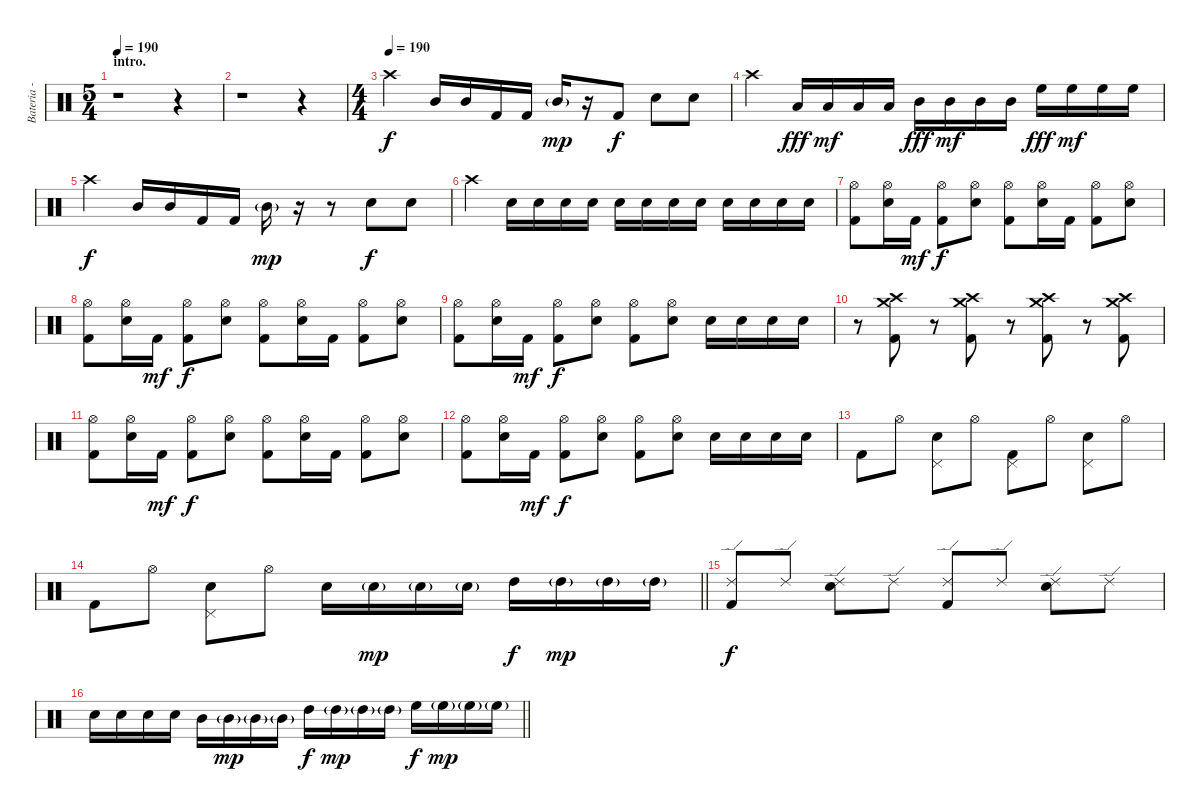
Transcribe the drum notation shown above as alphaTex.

\track ("Bateria - Larzon" "Bateria - ") {instrument percussion}
\staff {score}
\articulation defaults
\ts (5 4)
\section ("" "intro.")
\tempo 190
\tempo 99
\tempo 190
\clef neutral
\ks c
r.1{dy f} r.4 |
r.1 r.4 |
\ts (4 4)
\tempo (190)
"Crash high (hit)".4 "Mid Tom (hit)".16 "Mid Tom (hit)".16 "Kick (hit) 2".16 "Kick (hit) 2".16 "Mid Tom (hit)"{g}.16{dy mp} r.16 "Kick (hit) 2".8{dy f} "Electric Snare (hit)".8 "Electric Snare (hit)".8 |
"Crash high (hit)".4 "Low Tom (hit)".16{dy fff} "Low Tom (hit)".16{dy mf} "Low Tom (hit)".16 "Low Tom (hit)".16 "Mid Tom (hit)".16{dy fff} "Mid Tom (hit)".16{dy mf} "Mid Tom (hit)".16 "Mid Tom (hit)".16 "High Floor Tom (hit)".16{dy fff} "High Floor Tom (hit)".16{dy mf} "High Floor Tom (hit)".16 "High Floor Tom (hit)".16 |
"Crash high (hit)".4{dy f} "Mid Tom (hit)".16 "Mid Tom (hit)".16 "Kick (hit) 2".16 "Kick (hit) 2".16 "Mid Tom (hit)"{g}.16{dy mp} r.16 r.8 "Electric Snare (hit)".8{dy f} "Electric Snare (hit)".8 |
"Crash high (hit)".4 "Electric Snare (hit)".16 "Electric Snare (hit)".16 "Electric Snare (hit)".16 "Electric Snare (hit)".16 "Electric Snare (hit)".16 "Electric Snare (hit)".16 "Electric Snare (hit)".16 "Electric Snare (hit)".16 "Electric Snare (hit)".16 "Electric Snare (hit)".16 "Electric Snare (hit)".16 "Electric Snare (hit)".16 |
("Kick (hit) 2" "Hi-Hat (open)").8 ("Electric Snare (hit)" "Hi-Hat (open)").16 "Kick (hit) 2".16{dy mf} ("Kick (hit) 2" "Hi-Hat (open)").8{dy f} ("Electric Snare (hit)" "Hi-Hat (open)").8 ("Kick (hit) 2" "Hi-Hat (open)").8 ("Electric Snare (hit)" "Hi-Hat (open)").16 "Kick (hit) 2".16 ("Kick (hit) 2" "Hi-Hat (open)").8 ("Electric Snare (hit)" "Hi-Hat (open)").8 |
("Kick (hit) 2" "Hi-Hat (open)").8 ("Electric Snare (hit)" "Hi-Hat (open)").16 "Kick (hit) 2".16{dy mf} ("Kick (hit) 2" "Hi-Hat (open)").8{dy f} ("Electric Snare (hit)" "Hi-Hat (open)").8 ("Kick (hit) 2" "Hi-Hat (open)").8 ("Electric Snare (hit)" "Hi-Hat (open)").16 "Kick (hit) 2".16 ("Kick (hit) 2" "Hi-Hat (open)").8 ("Electric Snare (hit)" "Hi-Hat (open)").8 |
("Kick (hit) 2" "Hi-Hat (open)").8 ("Electric Snare (hit)" "Hi-Hat (open)").16 "Kick (hit) 2".16{dy mf} ("Kick (hit) 2" "Hi-Hat (open)").8{dy f} ("Electric Snare (hit)" "Hi-Hat (open)").8 ("Kick (hit) 2" "Hi-Hat (open)").8 ("Electric Snare (hit)" "Hi-Hat (open)").8 "Electric Snare (hit)".16 "Electric Snare (hit)".16 "Electric Snare (hit)".16 "Electric Snare (hit)".16 |
r.8 ("Kick (hit) 2" "Crash medium (hit)" "Crash high (hit)").8 r.8 ("Kick (hit) 2" "Crash medium (hit)" "Crash high (hit)").8 r.8 ("Kick (hit) 2" "Crash medium (hit)" "Crash high (hit)").8 r.8 ("Kick (hit) 2" "Crash medium (hit)" "Crash high (hit)").8 |
("Kick (hit) 2" "Hi-Hat (open)").8 ("Electric Snare (hit)" "Hi-Hat (open)").16 "Kick (hit) 2".16{dy mf} ("Kick (hit) 2" "Hi-Hat (open)").8{dy f} ("Electric Snare (hit)" "Hi-Hat (open)").8 ("Kick (hit) 2" "Hi-Hat (open)").8 ("Electric Snare (hit)" "Hi-Hat (open)").16 "Kick (hit) 2".16 ("Kick (hit) 2" "Hi-Hat (open)").8 ("Electric Snare (hit)" "Hi-Hat (open)").8 |
("Kick (hit) 2" "Hi-Hat (open)").8 ("Electric Snare (hit)" "Hi-Hat (open)").16 "Kick (hit) 2".16{dy mf} ("Kick (hit) 2" "Hi-Hat (open)").8{dy f} ("Electric Snare (hit)" "Hi-Hat (open)").8 ("Kick (hit) 2" "Hi-Hat (open)").8 ("Electric Snare (hit)" "Hi-Hat (open)").8 "Electric Snare (hit)".16 "Electric Snare (hit)".16 "Electric Snare (hit)".16 "Electric Snare (hit)".16 |
"Kick (hit) 2".8 "Hi-Hat (open)".8 ("Electric Snare (hit)" "Pedal Hi-Hat (hit)").8 "Hi-Hat (open)".8 ("Kick (hit) 2" "Pedal Hi-Hat (hit)").8 "Hi-Hat (open)".8 ("Electric Snare (hit)" "Pedal Hi-Hat (hit)").8 "Hi-Hat (open)".8 |
\barLineRight lightlight "Kick (hit) 2".8 "Hi-Hat (open)".8
("Electric Snare (hit)" "Pedal Hi-Hat (hit)").8 "Hi-Hat (open)".8 "Electric Snare (hit)".16 "Electric Snare (hit)"{g}.16{dy mp} "Electric Snare (hit)"{g}.16 "Electric Snare (hit)"{g}.16 "High Tom (hit)".16{dy f} "High Tom (hit)"{g}.16{dy mp} "High Tom (hit)"{g}.16 "High Tom (hit)"{g}.16 |
("Kick (hit) 2" "Ride (edge) 2").8{dy f} "Ride (edge) 2".8 ("Electric Snare (hit)" "Ride (edge) 2").8 "Ride (edge) 2".8 ("Kick (hit) 2" "Ride (edge) 2").8 "Ride (edge) 2".8 ("Electric Snare (hit)" "Ride (edge) 2").8 "Ride (edge) 2".8 |
\barLineRight lightlight "Electric Snare (hit)".16 "Electric Snare (hit)".16 "Electric Snare (hit)".16 "Electric Snare (hit)".16 "Mid Tom (hit)".16 "Mid Tom (hit)"{g}.16{dy mp} "Mid Tom (hit)"{g}.16 "Mid Tom (hit)"{g}.16 "High Tom (hit)".16{dy f} "High Tom (hit)"{g}.16{dy mp} "High Tom (hit)"{g}.16 "High Tom (hit)"{g}.16 "High Floor Tom (hit)".16{dy f} "High Floor Tom (hit)"{g}.16{dy mp} "High Floor Tom (hit)"{g}.16 "High Floor Tom (hit)"{g}.16
